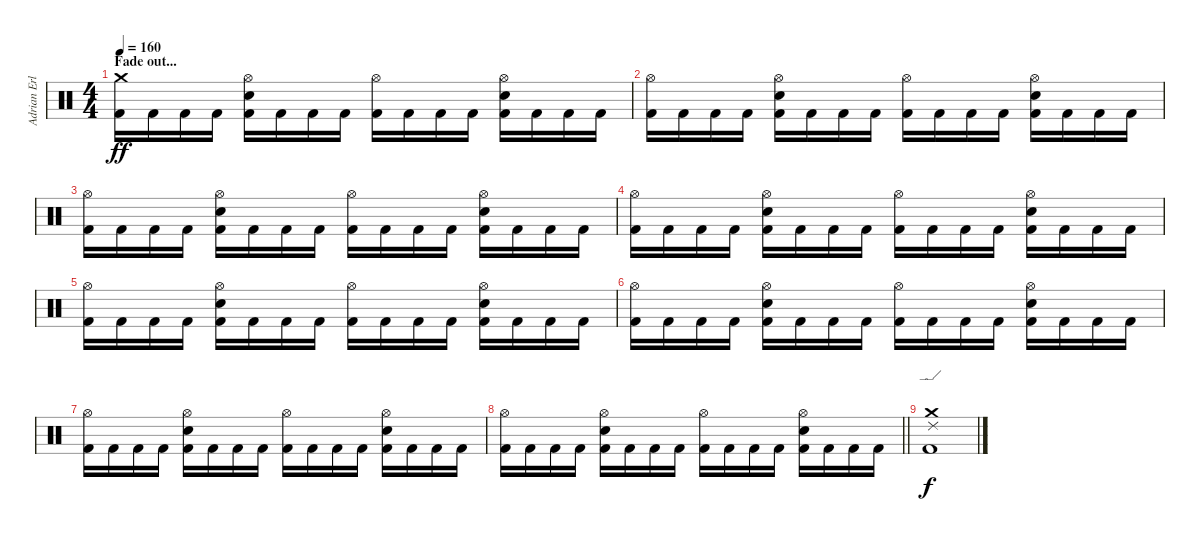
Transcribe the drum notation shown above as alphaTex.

\track ("Adrian Erlandsson" "Adrian Erl") {instrument percussion}
\staff {score}
\articulation defaults
\ts (4 4)
\section ("" "Fade out...")
\tempo 160
\clef neutral
\ks c
("Kick (hit) 2" "Crash medium (hit)").16{dy ff} "Kick (hit) 2".16 "Kick (hit) 2".16 "Kick (hit) 2".16 ("Kick (hit) 2" "Electric Snare (hit)" "Hi-Hat (open)").16 "Kick (hit) 2".16 "Kick (hit) 2".16 "Kick (hit) 2".16 ("Kick (hit) 2" "Hi-Hat (open)").16 "Kick (hit) 2".16 "Kick (hit) 2".16 "Kick (hit) 2".16 ("Kick (hit) 2" "Electric Snare (hit)" "Hi-Hat (open)").16 "Kick (hit) 2".16 "Kick (hit) 2".16 "Kick (hit) 2".16 |
("Kick (hit) 2" "Hi-Hat (open)").16 "Kick (hit) 2".16 "Kick (hit) 2".16 "Kick (hit) 2".16 ("Kick (hit) 2" "Electric Snare (hit)" "Hi-Hat (open)").16 "Kick (hit) 2".16 "Kick (hit) 2".16 "Kick (hit) 2".16 ("Kick (hit) 2" "Hi-Hat (open)").16 "Kick (hit) 2".16 "Kick (hit) 2".16 "Kick (hit) 2".16 ("Kick (hit) 2" "Electric Snare (hit)" "Hi-Hat (open)").16 "Kick (hit) 2".16 "Kick (hit) 2".16 "Kick (hit) 2".16 |
("Kick (hit) 2" "Hi-Hat (open)").16 "Kick (hit) 2".16 "Kick (hit) 2".16 "Kick (hit) 2".16 ("Kick (hit) 2" "Electric Snare (hit)" "Hi-Hat (open)").16 "Kick (hit) 2".16 "Kick (hit) 2".16 "Kick (hit) 2".16 ("Kick (hit) 2" "Hi-Hat (open)").16 "Kick (hit) 2".16 "Kick (hit) 2".16 "Kick (hit) 2".16 ("Kick (hit) 2" "Electric Snare (hit)" "Hi-Hat (open)").16 "Kick (hit) 2".16 "Kick (hit) 2".16 "Kick (hit) 2".16 |
("Kick (hit) 2" "Hi-Hat (open)").16 "Kick (hit) 2".16 "Kick (hit) 2".16 "Kick (hit) 2".16 ("Kick (hit) 2" "Electric Snare (hit)" "Hi-Hat (open)").16 "Kick (hit) 2".16 "Kick (hit) 2".16 "Kick (hit) 2".16 ("Kick (hit) 2" "Hi-Hat (open)").16 "Kick (hit) 2".16 "Kick (hit) 2".16 "Kick (hit) 2".16 ("Kick (hit) 2" "Electric Snare (hit)" "Hi-Hat (open)").16 "Kick (hit) 2".16 "Kick (hit) 2".16 "Kick (hit) 2".16 |
("Kick (hit) 2" "Hi-Hat (open)").16 "Kick (hit) 2".16 "Kick (hit) 2".16 "Kick (hit) 2".16 ("Kick (hit) 2" "Electric Snare (hit)" "Hi-Hat (open)").16 "Kick (hit) 2".16 "Kick (hit) 2".16 "Kick (hit) 2".16 ("Kick (hit) 2" "Hi-Hat (open)").16 "Kick (hit) 2".16 "Kick (hit) 2".16 "Kick (hit) 2".16 ("Kick (hit) 2" "Electric Snare (hit)" "Hi-Hat (open)").16 "Kick (hit) 2".16 "Kick (hit) 2".16 "Kick (hit) 2".16 |
("Kick (hit) 2" "Hi-Hat (open)").16 "Kick (hit) 2".16 "Kick (hit) 2".16 "Kick (hit) 2".16 ("Kick (hit) 2" "Electric Snare (hit)" "Hi-Hat (open)").16 "Kick (hit) 2".16 "Kick (hit) 2".16 "Kick (hit) 2".16 ("Kick (hit) 2" "Hi-Hat (open)").16 "Kick (hit) 2".16 "Kick (hit) 2".16 "Kick (hit) 2".16 ("Kick (hit) 2" "Electric Snare (hit)" "Hi-Hat (open)").16 "Kick (hit) 2".16 "Kick (hit) 2".16 "Kick (hit) 2".16 |
("Kick (hit) 2" "Hi-Hat (open)").16 "Kick (hit) 2".16 "Kick (hit) 2".16 "Kick (hit) 2".16 ("Kick (hit) 2" "Electric Snare (hit)" "Hi-Hat (open)").16 "Kick (hit) 2".16 "Kick (hit) 2".16 "Kick (hit) 2".16 ("Kick (hit) 2" "Hi-Hat (open)").16 "Kick (hit) 2".16 "Kick (hit) 2".16 "Kick (hit) 2".16 ("Kick (hit) 2" "Electric Snare (hit)" "Hi-Hat (open)").16 "Kick (hit) 2".16 "Kick (hit) 2".16 "Kick (hit) 2".16 |
\barLineRight lightlight
("Kick (hit) 2" "Hi-Hat (open)").16 "Kick (hit) 2".16 "Kick (hit) 2".16 "Kick (hit) 2".16 ("Kick (hit) 2" "Electric Snare (hit)" "Hi-Hat (open)").16 "Kick (hit) 2".16 "Kick (hit) 2".16 "Kick (hit) 2".16 ("Kick (hit) 2" "Hi-Hat (open)").16 "Kick (hit) 2".16 "Kick (hit) 2".16 "Kick (hit) 2".16 ("Kick (hit) 2" "Electric Snare (hit)" "Hi-Hat (open)").16 "Kick (hit) 2".16 "Kick (hit) 2".16 "Kick (hit) 2".16 |
("Kick (hit) 2" "Ride (edge) 2" "Crash medium (hit)").1{dy f}
